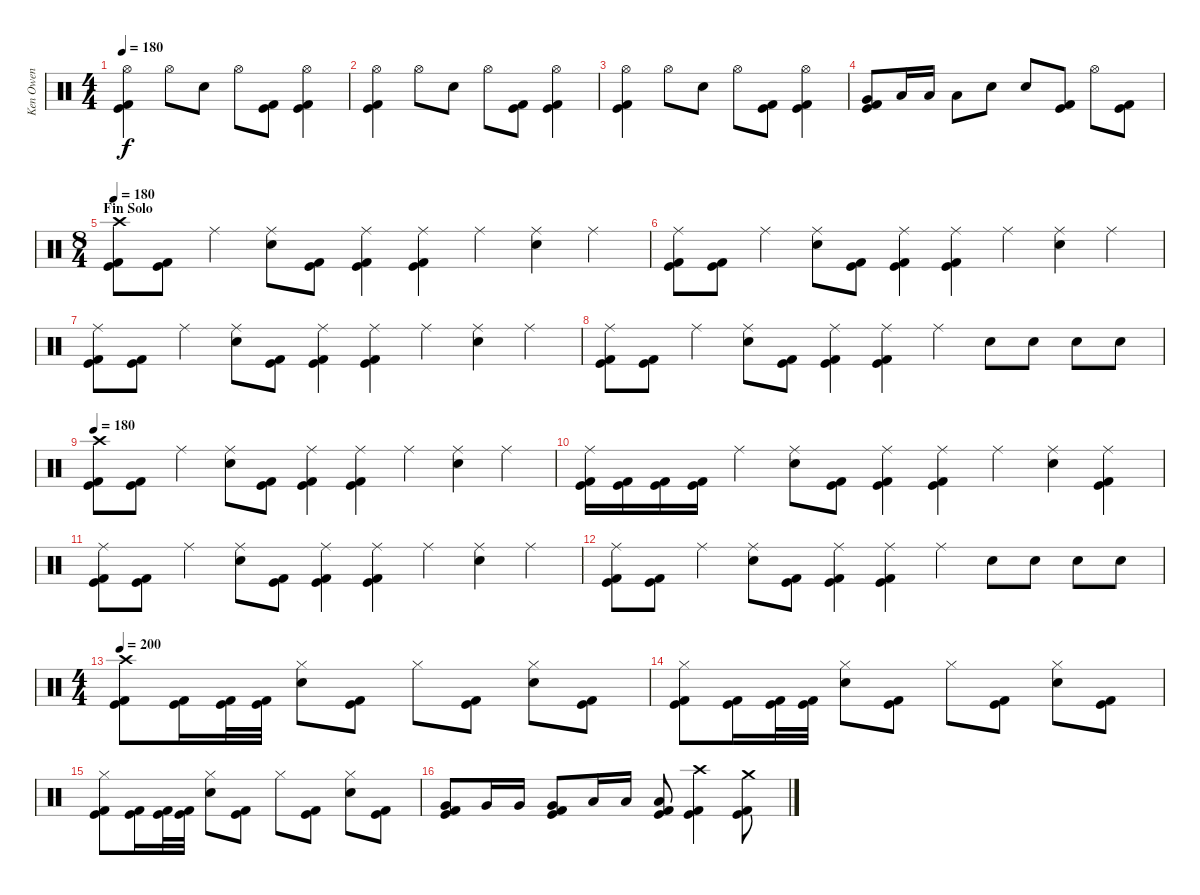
\track ("Ken Owen" "Ken Owen") {instrument percussion}
\staff {score}
\articulation defaults
\ts (4 4)
\tempo 180
\clef neutral
\ks c
("Hi-Hat (open)" "Kick (hit)" "Kick (hit) 2").4{dy f} "Hi-Hat (open)".8 "Electric Snare (hit)".8 "Hi-Hat (open)".8 ("Kick (hit)" "Kick (hit) 2").8 ("Hi-Hat (open)" "Kick (hit)" "Kick (hit) 2").4 |
("Hi-Hat (open)" "Kick (hit)" "Kick (hit) 2").4 "Hi-Hat (open)".8 "Electric Snare (hit)".8 "Hi-Hat (open)".8 ("Kick (hit)" "Kick (hit) 2").8 ("Hi-Hat (open)" "Kick (hit)" "Kick (hit) 2").4 |
("Hi-Hat (open)" "Kick (hit)" "Kick (hit) 2").4 "Hi-Hat (open)".8 "Electric Snare (hit)".8 "Hi-Hat (open)".8 ("Kick (hit)" "Kick (hit) 2").8 ("Hi-Hat (open)" "Kick (hit)" "Kick (hit) 2").4 |
("Very Low Tom (hit)" "Kick (hit)" "Kick (hit) 2").8 "Low Floor Tom (hit)".16 "Low Floor Tom (hit)".16 "Low Floor Tom (hit)".8 "Electric Snare (hit)".8 "Electric Snare (hit)".8 ("Kick (hit)" "Kick (hit) 2").8 "Hi-Hat (open)".8 ("Kick (hit)" "Kick (hit) 2").8 |
\ts (8 4)
\section ("" "Fin Solo")
\tempo 180
("Crash high (hit)" "Kick (hit)" "Kick (hit) 2").8 ("Kick (hit)" "Kick (hit) 2").8 "Ride (middle)".4 ("Ride (middle)" "Electric Snare (hit)").8 ("Kick (hit)" "Kick (hit) 2").8 ("Ride (middle)" "Kick (hit)" "Kick (hit) 2").4 ("Ride (middle)" "Kick (hit)" "Kick (hit) 2").4 "Ride (middle)".4 ("Ride (middle)" "Electric Snare (hit)").4 "Ride (middle)".4 |
("Ride (middle)" "Kick (hit)" "Kick (hit) 2").8 ("Kick (hit)" "Kick (hit) 2").8 "Ride (middle)".4 ("Ride (middle)" "Electric Snare (hit)").8 ("Kick (hit)" "Kick (hit) 2").8 ("Ride (middle)" "Kick (hit)" "Kick (hit) 2").4 ("Ride (middle)" "Kick (hit)" "Kick (hit) 2").4 "Ride (middle)".4 ("Ride (middle)" "Electric Snare (hit)").4 "Ride (middle)".4 |
("Ride (middle)" "Kick (hit)" "Kick (hit) 2").8 ("Kick (hit)" "Kick (hit) 2").8 "Ride (middle)".4 ("Ride (middle)" "Electric Snare (hit)").8 ("Kick (hit)" "Kick (hit) 2").8 ("Ride (middle)" "Kick (hit)" "Kick (hit) 2").4 ("Ride (middle)" "Kick (hit)" "Kick (hit) 2").4 "Ride (middle)".4 ("Ride (middle)" "Electric Snare (hit)").4 "Ride (middle)".4 |
("Ride (middle)" "Kick (hit)" "Kick (hit) 2").8 ("Kick (hit)" "Kick (hit) 2").8 "Ride (middle)".4 ("Ride (middle)" "Electric Snare (hit)").8 ("Kick (hit)" "Kick (hit) 2").8 ("Ride (middle)" "Kick (hit)" "Kick (hit) 2").4 ("Ride (middle)" "Kick (hit)" "Kick (hit) 2").4 "Ride (middle)".4 "Electric Snare (hit)".8 "Electric Snare (hit)".8 "Electric Snare (hit)".8 "Electric Snare (hit)".8 |
\tempo 180
("Crash high (hit)" "Kick (hit)" "Kick (hit) 2").8 ("Kick (hit)" "Kick (hit) 2").8 "Ride (middle)".4 ("Ride (middle)" "Electric Snare (hit)").8 ("Kick (hit)" "Kick (hit) 2").8 ("Ride (middle)" "Kick (hit)" "Kick (hit) 2").4 ("Ride (middle)" "Kick (hit)" "Kick (hit) 2").4 "Ride (middle)".4 ("Ride (middle)" "Electric Snare (hit)").4 "Ride (middle)".4 |
("Ride (middle)" "Kick (hit)" "Kick (hit) 2").16 ("Kick (hit)" "Kick (hit) 2").16 ("Kick (hit)" "Kick (hit) 2").16 ("Kick (hit)" "Kick (hit) 2").16 "Ride (middle)".4 ("Ride (middle)" "Electric Snare (hit)").8 ("Kick (hit)" "Kick (hit) 2").8 ("Ride (middle)" "Kick (hit)" "Kick (hit) 2").4 ("Ride (middle)" "Kick (hit)" "Kick (hit) 2").4 "Ride (middle)".4 ("Ride (middle)" "Electric Snare (hit)").4 ("Ride (middle)" "Kick (hit)" "Kick (hit) 2").4 |
("Ride (middle)" "Kick (hit)" "Kick (hit) 2").8 ("Kick (hit)" "Kick (hit) 2").8 "Ride (middle)".4 ("Ride (middle)" "Electric Snare (hit)").8 ("Kick (hit)" "Kick (hit) 2").8 ("Ride (middle)" "Kick (hit)" "Kick (hit) 2").4 ("Ride (middle)" "Kick (hit)" "Kick (hit) 2").4 "Ride (middle)".4 ("Ride (middle)" "Electric Snare (hit)").4 "Ride (middle)".4 |
("Ride (middle)" "Kick (hit)" "Kick (hit) 2").8 ("Kick (hit)" "Kick (hit) 2").8 "Ride (middle)".4 ("Ride (middle)" "Electric Snare (hit)").8 ("Kick (hit)" "Kick (hit) 2").8 ("Ride (middle)" "Kick (hit)" "Kick (hit) 2").4 ("Ride (middle)" "Kick (hit)" "Kick (hit) 2").4 "Ride (middle)".4 "Electric Snare (hit)".8 "Electric Snare (hit)".8 "Electric Snare (hit)".8 "Electric Snare (hit)".8 |
\ts (4 4)
\tempo 200
("Crash high (hit)" "Kick (hit)" "Kick (hit) 2").8 ("Kick (hit)" "Kick (hit) 2").16 ("Kick (hit)" "Kick (hit) 2").32 ("Kick (hit)" "Kick (hit) 2").32 ("Hi-Hat (closed)" "Electric Snare (hit)").8 ("Kick (hit)" "Kick (hit) 2").8 "Hi-Hat (closed)".8 ("Kick (hit)" "Kick (hit) 2").8 ("Hi-Hat (closed)" "Electric Snare (hit)").8 ("Kick (hit)" "Kick (hit) 2").8 |
("Hi-Hat (closed)" "Kick (hit)" "Kick (hit) 2").8 ("Kick (hit)" "Kick (hit) 2").16 ("Kick (hit)" "Kick (hit) 2").32 ("Kick (hit)" "Kick (hit) 2").32 ("Hi-Hat (closed)" "Electric Snare (hit)").8 ("Kick (hit)" "Kick (hit) 2").8 "Hi-Hat (closed)".8 ("Kick (hit)" "Kick (hit) 2").8 ("Hi-Hat (closed)" "Electric Snare (hit)").8 ("Kick (hit) 2" "Kick (hit)").8 |
("Hi-Hat (closed)" "Kick (hit)" "Kick (hit) 2").8 ("Kick (hit)" "Kick (hit) 2").16 ("Kick (hit)" "Kick (hit) 2").32 ("Kick (hit)" "Kick (hit) 2").32 ("Hi-Hat (closed)" "Electric Snare (hit)").8 ("Kick (hit)" "Kick (hit) 2").8 "Hi-Hat (closed)".8 ("Kick (hit)" "Kick (hit) 2").8 ("Hi-Hat (closed)" "Electric Snare (hit)").8 ("Kick (hit) 2" "Kick (hit)").8 |
("Very Low Tom (hit)" "Kick (hit)" "Kick (hit) 2").8 "Very Low Tom (hit)".16 "Very Low Tom (hit)".16 ("Very Low Tom (hit)" "Kick (hit)" "Kick (hit) 2").8 "Low Floor Tom (hit)".16 "Low Floor Tom (hit)".16 ("Low Floor Tom (hit)" "Kick (hit)" "Kick (hit) 2").8 ("Crash high (hit)" "Kick (hit)" "Kick (hit) 2").4 ("Crash medium (hit)" "Kick (hit)" "Kick (hit) 2").8
